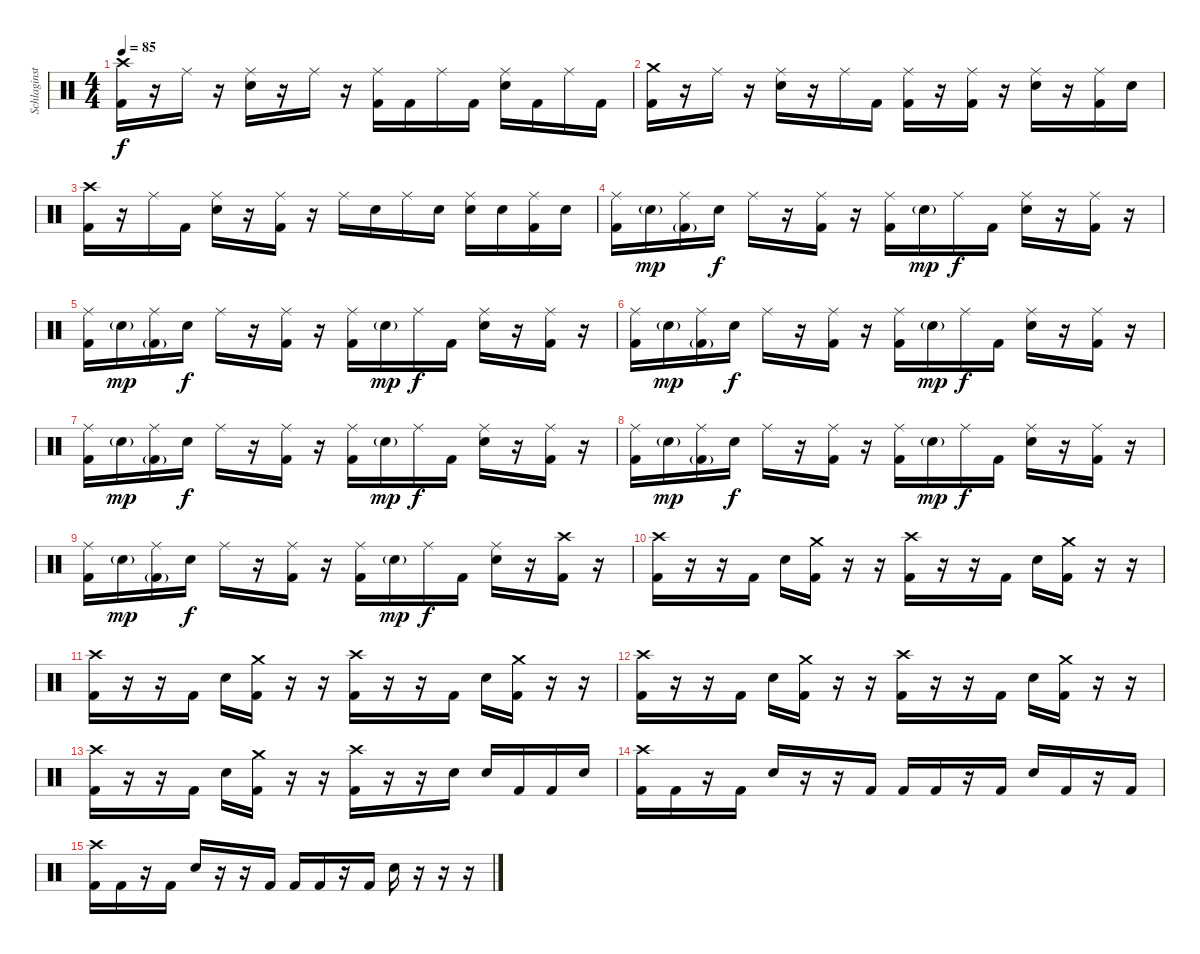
\track ("Schlaginstrumente - Auswahl" "Schlaginst") {instrument percussion}
\staff {score}
\articulation defaults
\ts (4 4)
\tempo 85
\clef neutral
\ks c
("Crash high (hit)" "Kick (hit) 2").16{dy f} r.16 "Ride (middle)".16 r.16 ("Ride (middle)" "Snare (hit) 2").16 r.16 "Ride (middle)".16 r.16 ("Ride (middle)" "Kick (hit) 2").16 "Kick (hit) 2".16 "Ride (middle)".16 "Kick (hit) 2".16 ("Ride (middle)" "Snare (hit) 2").16 "Kick (hit) 2".16 "Ride (middle)".16 "Kick (hit) 2".16 |
("Crash medium (hit)" "Kick (hit) 2").16 r.16 "Ride (middle)".16 r.16 ("Ride (middle)" "Snare (hit) 2").16 r.16 "Ride (middle)".16 "Kick (hit) 2".16 ("Ride (middle)" "Kick (hit) 2").16 r.16 ("Ride (middle)" "Kick (hit) 2").16 r.16 ("Ride (middle)" "Snare (hit) 2").16 r.16 ("Ride (middle)" "Kick (hit) 2").16 "Snare (hit) 2".16 |
("Crash high (hit)" "Kick (hit) 2").16 r.16 "Ride (middle)".16 "Kick (hit) 2".16 ("Ride (middle)" "Snare (hit) 2").16 r.16 ("Ride (middle)" "Kick (hit) 2").16 r.16 "Ride (middle)".16 "Snare (hit) 2".16 "Ride (middle)".16 "Snare (hit) 2".16 ("Ride (middle)" "Snare (hit) 2").16 "Snare (hit) 2".16 ("Ride (middle)" "Kick (hit) 2").16 "Snare (hit) 2".16 |
("Ride (middle)" "Kick (hit) 2").16 "Snare (hit) 2"{g}.16{dy mp} ("Ride (middle)" "Kick (hit) 2"{g}).16 "Snare (hit) 2".16{dy f} "Ride (middle)".16 r.16 ("Ride (middle)" "Kick (hit) 2").16 r.16 ("Ride (middle)" "Kick (hit) 2").16 "Snare (hit) 2"{g}.16{dy mp} "Ride (middle)".16{dy f} "Kick (hit) 2".16 ("Ride (middle)" "Snare (hit) 2").16 r.16 ("Ride (middle)" "Kick (hit) 2").16 r.16 |
("Ride (middle)" "Kick (hit) 2").16 "Snare (hit) 2"{g}.16{dy mp} ("Ride (middle)" "Kick (hit) 2"{g}).16 "Snare (hit) 2".16{dy f} "Ride (middle)".16 r.16 ("Ride (middle)" "Kick (hit) 2").16 r.16 ("Ride (middle)" "Kick (hit) 2").16 "Snare (hit) 2"{g}.16{dy mp} "Ride (middle)".16{dy f} "Kick (hit) 2".16 ("Ride (middle)" "Snare (hit) 2").16 r.16 ("Ride (middle)" "Kick (hit) 2").16 r.16 |
("Ride (middle)" "Kick (hit) 2").16 "Snare (hit) 2"{g}.16{dy mp} ("Ride (middle)" "Kick (hit) 2"{g}).16 "Snare (hit) 2".16{dy f} "Ride (middle)".16 r.16 ("Ride (middle)" "Kick (hit) 2").16 r.16 ("Ride (middle)" "Kick (hit) 2").16 "Snare (hit) 2"{g}.16{dy mp} "Ride (middle)".16{dy f} "Kick (hit) 2".16 ("Ride (middle)" "Snare (hit) 2").16 r.16 ("Ride (middle)" "Kick (hit) 2").16 r.16 |
("Ride (middle)" "Kick (hit) 2").16 "Snare (hit) 2"{g}.16{dy mp} ("Ride (middle)" "Kick (hit) 2"{g}).16 "Snare (hit) 2".16{dy f} "Ride (middle)".16 r.16 ("Ride (middle)" "Kick (hit) 2").16 r.16 ("Ride (middle)" "Kick (hit) 2").16 "Snare (hit) 2"{g}.16{dy mp} "Ride (middle)".16{dy f} "Kick (hit) 2".16 ("Ride (middle)" "Snare (hit) 2").16 r.16 ("Ride (middle)" "Kick (hit) 2").16 r.16 |
("Ride (middle)" "Kick (hit) 2").16 "Snare (hit) 2"{g}.16{dy mp} ("Ride (middle)" "Kick (hit) 2"{g}).16 "Snare (hit) 2".16{dy f} "Ride (middle)".16 r.16 ("Ride (middle)" "Kick (hit) 2").16 r.16 ("Ride (middle)" "Kick (hit) 2").16 "Snare (hit) 2"{g}.16{dy mp} "Ride (middle)".16{dy f} "Kick (hit) 2".16 ("Ride (middle)" "Snare (hit) 2").16 r.16 ("Ride (middle)" "Kick (hit) 2").16 r.16 |
("Ride (middle)" "Kick (hit) 2").16 "Snare (hit) 2"{g}.16{dy mp} ("Ride (middle)" "Kick (hit) 2"{g}).16 "Snare (hit) 2".16{dy f} "Ride (middle)".16 r.16 ("Ride (middle)" "Kick (hit) 2").16 r.16 ("Ride (middle)" "Kick (hit) 2").16 "Snare (hit) 2"{g}.16{dy mp} "Ride (middle)".16{dy f} "Kick (hit) 2".16 ("Ride (middle)" "Snare (hit) 2").16 r.16 ("Crash high (hit)" "Kick (hit) 2").16 r.16 |
("Crash high (hit)" "Kick (hit) 2").16 r.16 r.16 "Kick (hit) 2".16 "Snare (hit) 2".16 ("Crash medium (hit)" "Kick (hit) 2").16 r.16 r.16 ("Crash high (hit)" "Kick (hit) 2").16 r.16 r.16 "Kick (hit) 2".16 "Snare (hit) 2".16 ("Crash medium (hit)" "Kick (hit) 2").16 r.16 r.16 |
("Crash high (hit)" "Kick (hit) 2").16 r.16 r.16 "Kick (hit) 2".16 "Snare (hit) 2".16 ("Crash medium (hit)" "Kick (hit) 2").16 r.16 r.16 ("Crash high (hit)" "Kick (hit) 2").16 r.16 r.16 "Kick (hit) 2".16 "Snare (hit) 2".16 ("Crash medium (hit)" "Kick (hit) 2").16 r.16 r.16 |
("Crash high (hit)" "Kick (hit) 2").16 r.16 r.16 "Kick (hit) 2".16 "Snare (hit) 2".16 ("Crash medium (hit)" "Kick (hit) 2").16 r.16 r.16 ("Crash high (hit)" "Kick (hit) 2").16 r.16 r.16 "Kick (hit) 2".16 "Snare (hit) 2".16 ("Crash medium (hit)" "Kick (hit) 2").16 r.16 r.16 |
("Crash high (hit)" "Kick (hit) 2").16 r.16 r.16 "Kick (hit) 2".16 "Snare (hit) 2".16 ("Crash medium (hit)" "Kick (hit) 2").16 r.16 r.16 ("Crash high (hit)" "Kick (hit) 2").16 r.16 r.16 "Snare (hit) 2".16 "Snare (hit) 2".16 "Kick (hit) 2".16 "Kick (hit) 2".16 "Snare (hit) 2".16 |
("Crash high (hit)" "Kick (hit) 2").16 "Kick (hit) 2".16 r.16 "Kick (hit) 2".16 "Snare (hit) 2".16 r.16 r.16 "Kick (hit) 2".16 "Kick (hit) 2".16 "Kick (hit) 2".16 r.16 "Kick (hit) 2".16 "Snare (hit) 2".16 "Kick (hit) 2".16 r.16 "Kick (hit) 2".16 |
("Crash high (hit)" "Kick (hit) 2").16 "Kick (hit) 2".16 r.16 "Kick (hit) 2".16 "Snare (hit) 2".16 r.16 r.16 "Kick (hit) 2".16 "Kick (hit) 2".16 "Kick (hit) 2".16 r.16 "Kick (hit) 2".16 "Snare (hit) 2".16 r.16 r.16 r.16
